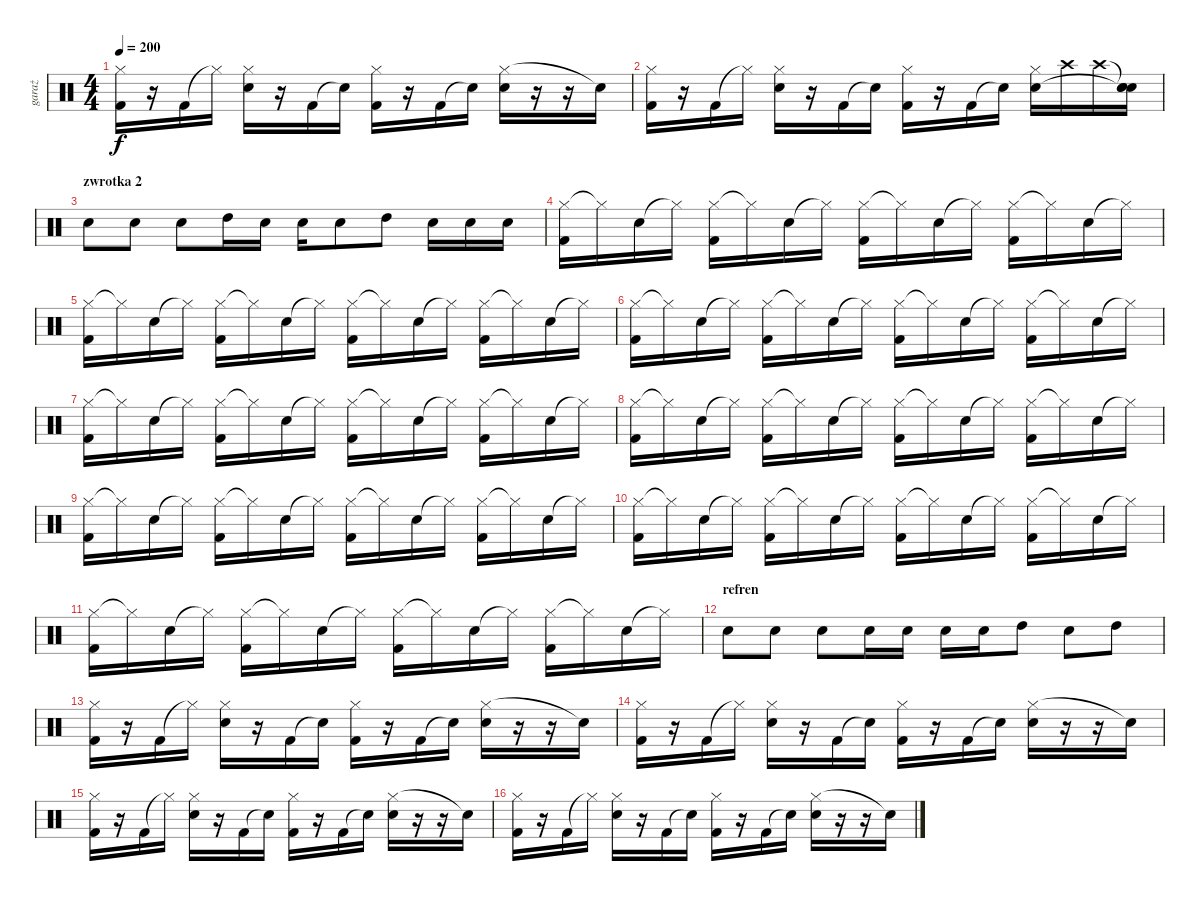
\track ("garaż" "garaż") {instrument percussion}
\staff {score}
\articulation defaults
\ts (4 4)
\tempo 200
\clef neutral
\ks c
("Hi-Hat (closed)" "Kick (hit) 2").16{dy f} r.16 "Kick (hit) 2".16 "Hi-Hat (closed)"{t}.16 ("Hi-Hat (closed)" "Snare (hit) 2").16 r.16 "Kick (hit) 2".16 "Snare (hit)"{t}.16 ("Hi-Hat (closed)" "Kick (hit) 2").16 r.16 "Kick (hit) 2".16 "Snare (hit)"{t}.16 ("Hi-Hat (closed)" "Snare (hit) 2").16 r.16 r.16 "Snare (hit)"{t}.16 |
("Hi-Hat (closed)" "Kick (hit) 2").16 r.16 "Kick (hit) 2".16 "Hi-Hat (closed)"{t}.16 ("Hi-Hat (closed)" "Snare (hit) 2").16 r.16 "Kick (hit) 2".16 "Snare (hit)"{t}.16 ("Hi-Hat (closed)" "Kick (hit) 2").16 r.16 "Kick (hit) 2".16 "Snare (hit)"{t}.16 ("Hi-Hat (closed)" "Snare (hit) 2").16 "Crash high (hit)".16 "Crash high (hit)".16 ("Snare (hit)"{t} "Snare (hit)"{t} "Snare (hit)").16 |
\section ("" "zwrotka 2")
"Snare (hit) 2".8 "Snare (hit) 2".8 "Snare (hit) 2".8 "High Tom (hit)".16 "Snare (hit) 2".16 "Snare (hit) 2".16 "Snare (hit) 2".8 "High Tom (hit)".8 "Snare (hit) 2".16 "Snare (hit) 2".16 "Snare (hit) 2".16 |
("Hi-Hat (closed)" "Kick (hit) 2").16 "Hi-Hat (closed)"{t}.16 "Snare (hit) 2".16 "Hi-Hat (closed)"{t}.16 ("Hi-Hat (closed)" "Kick (hit) 2").16 "Hi-Hat (closed)"{t}.16 "Snare (hit) 2".16 "Hi-Hat (closed)"{t}.16 ("Hi-Hat (closed)" "Kick (hit) 2").16 "Hi-Hat (closed)"{t}.16 "Snare (hit) 2".16 "Hi-Hat (closed)"{t}.16 ("Hi-Hat (closed)" "Kick (hit) 2").16 "Hi-Hat (closed)"{t}.16 "Snare (hit) 2".16 "Hi-Hat (closed)"{t}.16 |
("Hi-Hat (closed)" "Kick (hit) 2").16 "Hi-Hat (closed)"{t}.16 "Snare (hit) 2".16 "Hi-Hat (closed)"{t}.16 ("Hi-Hat (closed)" "Kick (hit) 2").16 "Hi-Hat (closed)"{t}.16 "Snare (hit) 2".16 "Hi-Hat (closed)"{t}.16 ("Hi-Hat (closed)" "Kick (hit) 2").16 "Hi-Hat (closed)"{t}.16 "Snare (hit) 2".16 "Hi-Hat (closed)"{t}.16 ("Hi-Hat (closed)" "Kick (hit) 2").16 "Hi-Hat (closed)"{t}.16 "Snare (hit) 2".16 "Hi-Hat (closed)"{t}.16 |
("Hi-Hat (closed)" "Kick (hit) 2").16 "Hi-Hat (closed)"{t}.16 "Snare (hit) 2".16 "Hi-Hat (closed)"{t}.16 ("Hi-Hat (closed)" "Kick (hit) 2").16 "Hi-Hat (closed)"{t}.16 "Snare (hit) 2".16 "Hi-Hat (closed)"{t}.16 ("Hi-Hat (closed)" "Kick (hit) 2").16 "Hi-Hat (closed)"{t}.16 "Snare (hit) 2".16 "Hi-Hat (closed)"{t}.16 ("Hi-Hat (closed)" "Kick (hit) 2").16 "Hi-Hat (closed)"{t}.16 "Snare (hit) 2".16 "Hi-Hat (closed)"{t}.16 |
("Hi-Hat (closed)" "Kick (hit) 2").16 "Hi-Hat (closed)"{t}.16 "Snare (hit) 2".16 "Hi-Hat (closed)"{t}.16 ("Hi-Hat (closed)" "Kick (hit) 2").16 "Hi-Hat (closed)"{t}.16 "Snare (hit) 2".16 "Hi-Hat (closed)"{t}.16 ("Hi-Hat (closed)" "Kick (hit) 2").16 "Hi-Hat (closed)"{t}.16 "Snare (hit) 2".16 "Hi-Hat (closed)"{t}.16 ("Hi-Hat (closed)" "Kick (hit) 2").16 "Hi-Hat (closed)"{t}.16 "Snare (hit) 2".16 "Hi-Hat (closed)"{t}.16 |
("Hi-Hat (closed)" "Kick (hit) 2").16 "Hi-Hat (closed)"{t}.16 "Snare (hit) 2".16 "Hi-Hat (closed)"{t}.16 ("Hi-Hat (closed)" "Kick (hit) 2").16 "Hi-Hat (closed)"{t}.16 "Snare (hit) 2".16 "Hi-Hat (closed)"{t}.16 ("Hi-Hat (closed)" "Kick (hit) 2").16 "Hi-Hat (closed)"{t}.16 "Snare (hit) 2".16 "Hi-Hat (closed)"{t}.16 ("Hi-Hat (closed)" "Kick (hit) 2").16 "Hi-Hat (closed)"{t}.16 "Snare (hit) 2".16 "Hi-Hat (closed)"{t}.16 |
("Hi-Hat (closed)" "Kick (hit) 2").16 "Hi-Hat (closed)"{t}.16 "Snare (hit) 2".16 "Hi-Hat (closed)"{t}.16 ("Hi-Hat (closed)" "Kick (hit) 2").16 "Hi-Hat (closed)"{t}.16 "Snare (hit) 2".16 "Hi-Hat (closed)"{t}.16 ("Hi-Hat (closed)" "Kick (hit) 2").16 "Hi-Hat (closed)"{t}.16 "Snare (hit) 2".16 "Hi-Hat (closed)"{t}.16 ("Hi-Hat (closed)" "Kick (hit) 2").16 "Hi-Hat (closed)"{t}.16 "Snare (hit) 2".16 "Hi-Hat (closed)"{t}.16 |
("Hi-Hat (closed)" "Kick (hit) 2").16 "Hi-Hat (closed)"{t}.16 "Snare (hit) 2".16 "Hi-Hat (closed)"{t}.16 ("Hi-Hat (closed)" "Kick (hit) 2").16 "Hi-Hat (closed)"{t}.16 "Snare (hit) 2".16 "Hi-Hat (closed)"{t}.16 ("Hi-Hat (closed)" "Kick (hit) 2").16 "Hi-Hat (closed)"{t}.16 "Snare (hit) 2".16 "Hi-Hat (closed)"{t}.16 ("Hi-Hat (closed)" "Kick (hit) 2").16 "Hi-Hat (closed)"{t}.16 "Snare (hit) 2".16 "Hi-Hat (closed)"{t}.16 |
("Hi-Hat (closed)" "Kick (hit) 2").16 "Hi-Hat (closed)"{t}.16 "Snare (hit) 2".16 "Hi-Hat (closed)"{t}.16 ("Hi-Hat (closed)" "Kick (hit) 2").16 "Hi-Hat (closed)"{t}.16 "Snare (hit) 2".16 "Hi-Hat (closed)"{t}.16 ("Hi-Hat (closed)" "Kick (hit) 2").16 "Hi-Hat (closed)"{t}.16 "Snare (hit) 2".16 "Hi-Hat (closed)"{t}.16 ("Hi-Hat (closed)" "Kick (hit) 2").16 "Hi-Hat (closed)"{t}.16 "Snare (hit) 2".16 "Hi-Hat (closed)"{t}.16 |
\section ("" "refren")
"Snare (hit) 2".8 "Snare (hit) 2".8 "Snare (hit) 2".8 "Snare (hit) 2".16 "Snare (hit) 2".16 "Snare (hit) 2".16 "Snare (hit) 2".16 "High Tom (hit)".8 "Snare (hit) 2".8 "High Tom (hit)".8 |
("Hi-Hat (closed)" "Kick (hit) 2").16 r.16 "Kick (hit) 2".16 "Hi-Hat (closed)"{t}.16 ("Hi-Hat (closed)" "Snare (hit) 2").16 r.16 "Kick (hit) 2".16 "Snare (hit)"{t}.16 ("Hi-Hat (closed)" "Kick (hit) 2").16 r.16 "Kick (hit) 2".16 "Snare (hit)"{t}.16 ("Hi-Hat (closed)" "Snare (hit) 2").16 r.16 r.16 "Snare (hit)"{t}.16 |
("Hi-Hat (closed)" "Kick (hit) 2").16 r.16 "Kick (hit) 2".16 "Hi-Hat (closed)"{t}.16 ("Hi-Hat (closed)" "Snare (hit) 2").16 r.16 "Kick (hit) 2".16 "Snare (hit)"{t}.16 ("Hi-Hat (closed)" "Kick (hit) 2").16 r.16 "Kick (hit) 2".16 "Snare (hit)"{t}.16 ("Hi-Hat (closed)" "Snare (hit) 2").16 r.16 r.16 "Snare (hit)"{t}.16 |
("Hi-Hat (closed)" "Kick (hit) 2").16 r.16 "Kick (hit) 2".16 "Hi-Hat (closed)"{t}.16 ("Hi-Hat (closed)" "Snare (hit) 2").16 r.16 "Kick (hit) 2".16 "Snare (hit)"{t}.16 ("Hi-Hat (closed)" "Kick (hit) 2").16 r.16 "Kick (hit) 2".16 "Snare (hit)"{t}.16 ("Hi-Hat (closed)" "Snare (hit) 2").16 r.16 r.16 "Snare (hit)"{t}.16 |
("Hi-Hat (closed)" "Kick (hit) 2").16 r.16 "Kick (hit) 2".16 "Hi-Hat (closed)"{t}.16 ("Hi-Hat (closed)" "Snare (hit) 2").16 r.16 "Kick (hit) 2".16 "Snare (hit)"{t}.16 ("Hi-Hat (closed)" "Kick (hit) 2").16 r.16 "Kick (hit) 2".16 "Snare (hit)"{t}.16 ("Hi-Hat (closed)" "Snare (hit) 2").16 r.16 r.16 "Snare (hit)"{t}.16
